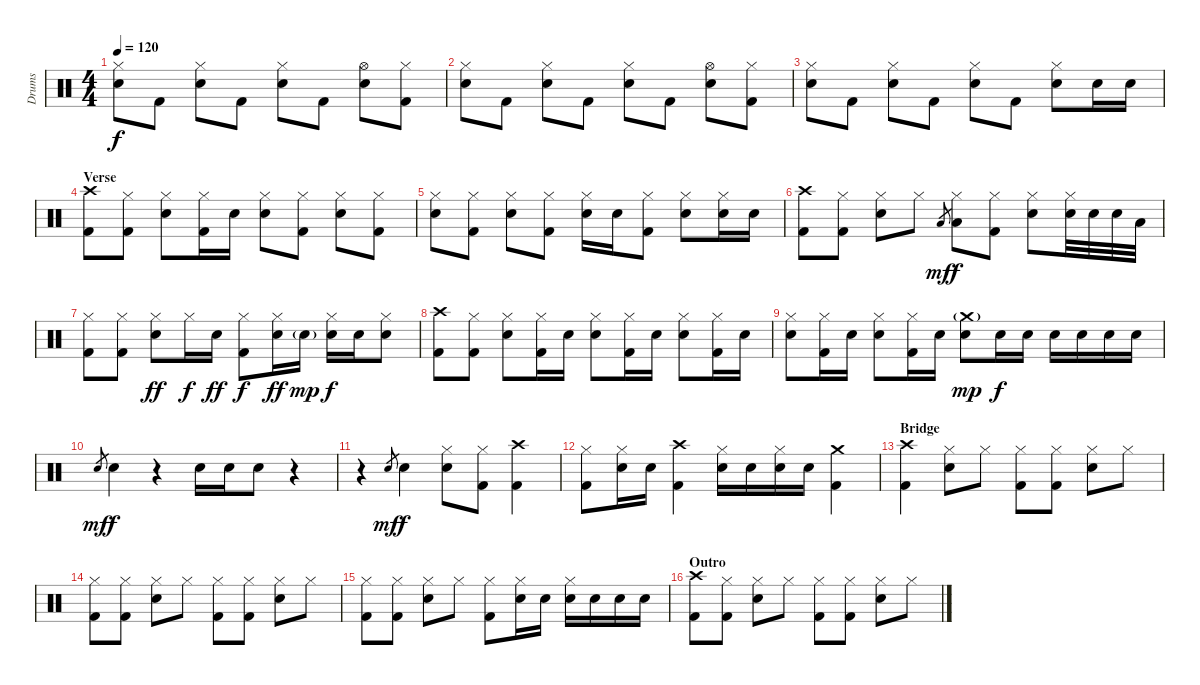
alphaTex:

\track ("Drums" "Drums") {instrument percussion}
\staff {score}
\articulation defaults
\ts (4 4)
\tempo 120
\clef neutral
\ks c
("Hi-Hat (closed)" "Electric Snare (hit)").8{dy f} "Kick (hit) 2".8 ("Hi-Hat (closed)" "Electric Snare (hit)").8 "Kick (hit) 2".8 ("Hi-Hat (closed)" "Electric Snare (hit)").8 "Kick (hit) 2".8 ("Hi-Hat (open)" "Electric Snare (hit)").8 ("Hi-Hat (closed)" "Kick (hit) 2").8 |
("Hi-Hat (closed)" "Electric Snare (hit)").8 "Kick (hit) 2".8 ("Hi-Hat (closed)" "Electric Snare (hit)").8 "Kick (hit) 2".8 ("Hi-Hat (closed)" "Electric Snare (hit)").8 "Kick (hit) 2".8 ("Hi-Hat (open)" "Electric Snare (hit)").8 ("Hi-Hat (closed)" "Kick (hit) 2").8 |
("Hi-Hat (closed)" "Electric Snare (hit)").8 "Kick (hit) 2".8 ("Hi-Hat (closed)" "Electric Snare (hit)").8 "Kick (hit) 2".8 ("Hi-Hat (closed)" "Electric Snare (hit)").8 "Kick (hit) 2".8 ("Hi-Hat (closed)" "Electric Snare (hit)").8 "Electric Snare (hit)".16 "Electric Snare (hit)".16 |
\section ("" "Verse")
("Crash high (hit)" "Kick (hit) 2").8 ("Hi-Hat (closed)" "Kick (hit) 2").8 ("Hi-Hat (closed)" "Electric Snare (hit)").8 ("Hi-Hat (closed)" "Kick (hit) 2").16 "Electric Snare (hit)".16 ("Hi-Hat (closed)" "Electric Snare (hit)").8 ("Hi-Hat (closed)" "Kick (hit) 2").8 ("Hi-Hat (closed)" "Electric Snare (hit)").8 ("Hi-Hat (closed)" "Kick (hit) 2").8 |
("Hi-Hat (closed)" "Electric Snare (hit)").8 ("Hi-Hat (closed)" "Kick (hit) 2").8 ("Hi-Hat (closed)" "Electric Snare (hit)").8 ("Hi-Hat (closed)" "Kick (hit) 2").8 ("Hi-Hat (closed)" "Electric Snare (hit)").16 "Electric Snare (hit)".16 ("Hi-Hat (closed)" "Kick (hit) 2").8 ("Hi-Hat (closed)" "Electric Snare (hit)").8 ("Hi-Hat (closed)" "Electric Snare (hit)").16 "Electric Snare (hit)".16 |
("Crash high (hit)" "Kick (hit) 2").8 ("Hi-Hat (closed)" "Kick (hit) 2").8 ("Hi-Hat (closed)" "Electric Snare (hit)").8 "Hi-Hat (closed)".8 "Low Tom (hit)".8{gr dy mf} ("Hi-Hat (closed)" "Low Tom (hit)").8{dy f} ("Hi-Hat (closed)" "Kick (hit) 2").8 ("Hi-Hat (closed)" "Electric Snare (hit)").8 ("Hi-Hat (closed)" "Electric Snare (hit)").32 "Electric Snare (hit)".32 "Electric Snare (hit)".32 "Low Tom (hit)".32 |
("Hi-Hat (closed)" "Kick (hit) 2").8 ("Hi-Hat (closed)" "Kick (hit) 2").8 ("Hi-Hat (closed)" "Electric Snare (hit)").8{dy ff} "Hi-Hat (closed)".16{dy f} "Electric Snare (hit)".16{dy ff} ("Hi-Hat (closed)" "Kick (hit) 2").8{dy f} ("Hi-Hat (closed)" "Electric Snare (hit)").16{dy ff} "Electric Snare (hit)"{g}.16{dy mp} ("Hi-Hat (closed)" "Electric Snare (hit)").16{dy f} "Electric Snare (hit)".16 ("Hi-Hat (closed)" "Electric Snare (hit)").8 |
("Crash high (hit)" "Kick (hit) 2").8 ("Hi-Hat (closed)" "Kick (hit) 2").8 ("Hi-Hat (closed)" "Electric Snare (hit)").8 ("Hi-Hat (closed)" "Kick (hit) 2").16 "Electric Snare (hit)".16 ("Hi-Hat (closed)" "Electric Snare (hit)").8 ("Hi-Hat (closed)" "Kick (hit) 2").16 "Electric Snare (hit)".16 ("Hi-Hat (closed)" "Electric Snare (hit)").8 ("Hi-Hat (closed)" "Kick (hit) 2").16 "Electric Snare (hit)".16 |
("Hi-Hat (closed)" "Electric Snare (hit)").8 ("Hi-Hat (closed)" "Kick (hit) 2").16 "Electric Snare (hit)".16 ("Hi-Hat (closed)" "Electric Snare (hit)").8 ("Hi-Hat (closed)" "Kick (hit) 2").16 "Electric Snare (hit)".16 ("Crash medium (hit)"{g} "Electric Snare (hit)").8{dy mp} "Electric Snare (hit)".16{dy f} "Electric Snare (hit)".16 "Electric Snare (hit)".16 "Electric Snare (hit)".16 "Electric Snare (hit)".16 "Electric Snare (hit)".16 |
"Electric Snare (hit)".8{gr dy mf} "Electric Snare (hit)".4{dy f} r.4 "Electric Snare (hit)".16 "Electric Snare (hit)".16 "Electric Snare (hit)".8 r.4 |
r.4 "Electric Snare (hit)".8{gr dy mf} "Electric Snare (hit)".4{dy f} ("Hi-Hat (closed)" "Electric Snare (hit)").8 ("Hi-Hat (closed)" "Kick (hit) 2").8 ("Crash high (hit)" "Kick (hit) 2").4 |
("Hi-Hat (closed)" "Kick (hit) 2").8 ("Hi-Hat (closed)" "Electric Snare (hit)").16 "Electric Snare (hit)".16 ("Crash high (hit)" "Kick (hit) 2").4 ("Hi-Hat (closed)" "Electric Snare (hit)").16 "Electric Snare (hit)".16 ("Hi-Hat (closed)" "Electric Snare (hit)").16 "Electric Snare (hit)".16 ("Crash medium (hit)" "Kick (hit) 2").4 |
\section ("" "Bridge")
("Crash high (hit)" "Kick (hit) 2").4 ("Hi-Hat (closed)" "Electric Snare (hit)").8 "Hi-Hat (closed)".8 ("Hi-Hat (closed)" "Kick (hit) 2").8 ("Hi-Hat (closed)" "Kick (hit) 2").8 ("Hi-Hat (closed)" "Electric Snare (hit)").8 "Hi-Hat (closed)".8 |
("Hi-Hat (closed)" "Kick (hit) 2").8 ("Hi-Hat (closed)" "Kick (hit) 2").8 ("Hi-Hat (closed)" "Electric Snare (hit)").8 "Hi-Hat (closed)".8 ("Hi-Hat (closed)" "Kick (hit) 2").8 ("Hi-Hat (closed)" "Kick (hit) 2").8 ("Hi-Hat (closed)" "Electric Snare (hit)").8 "Hi-Hat (closed)".8 |
("Hi-Hat (closed)" "Kick (hit) 2").8 ("Hi-Hat (closed)" "Kick (hit) 2").8 ("Hi-Hat (closed)" "Electric Snare (hit)").8 "Hi-Hat (closed)".8 ("Hi-Hat (closed)" "Kick (hit) 2").8 ("Hi-Hat (closed)" "Electric Snare (hit)").16 "Electric Snare (hit)".16 ("Hi-Hat (closed)" "Electric Snare (hit)").16 "Electric Snare (hit)".16 "Electric Snare (hit)".16 "Electric Snare (hit)".16 |
\section ("" "Outro")
("Crash high (hit)" "Kick (hit) 2").8 ("Hi-Hat (closed)" "Kick (hit) 2").8 ("Hi-Hat (closed)" "Electric Snare (hit)").8 "Hi-Hat (closed)".8 ("Hi-Hat (closed)" "Kick (hit) 2").8 ("Hi-Hat (closed)" "Kick (hit) 2").8 ("Hi-Hat (closed)" "Electric Snare (hit)").8 "Hi-Hat (closed)".8
